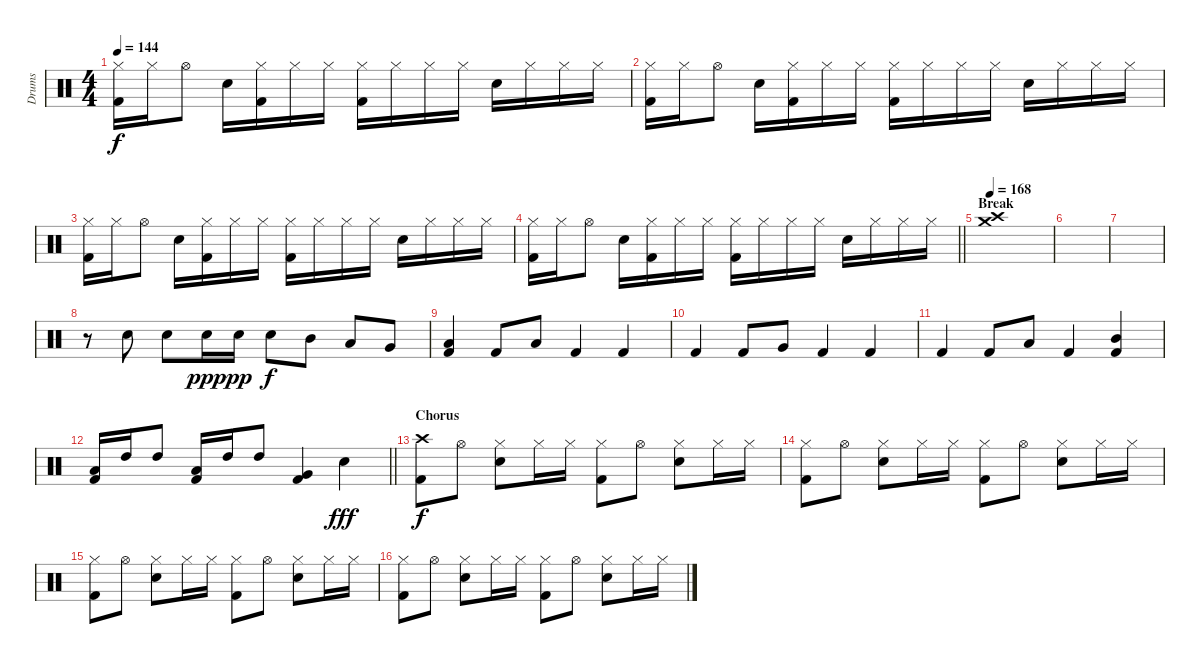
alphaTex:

\track ("Drums" "Drums") {instrument percussion}
\staff {score}
\articulation defaults
\ts (4 4)
\tempo 144
\clef neutral
\ks c
("Hi-Hat (closed)" "Kick (hit) 2").16{dy f} "Hi-Hat (closed)".16 "Hi-Hat (open)".8 "Electric Snare (hit)".16 ("Hi-Hat (closed)" "Kick (hit) 2").16 "Hi-Hat (closed)".16 "Hi-Hat (closed)".16 ("Hi-Hat (closed)" "Kick (hit) 2").16 "Hi-Hat (closed)".16 "Hi-Hat (closed)".16 "Hi-Hat (closed)".16 "Electric Snare (hit)".16 "Hi-Hat (closed)".16 "Hi-Hat (closed)".16 "Hi-Hat (closed)".16 |
("Hi-Hat (closed)" "Kick (hit) 2").16 "Hi-Hat (closed)".16 "Hi-Hat (open)".8 "Electric Snare (hit)".16 ("Hi-Hat (closed)" "Kick (hit) 2").16 "Hi-Hat (closed)".16 "Hi-Hat (closed)".16 ("Hi-Hat (closed)" "Kick (hit) 2").16 "Hi-Hat (closed)".16 "Hi-Hat (closed)".16 "Hi-Hat (closed)".16 "Electric Snare (hit)".16 "Hi-Hat (closed)".16 "Hi-Hat (closed)".16 "Hi-Hat (closed)".16 |
("Hi-Hat (closed)" "Kick (hit) 2").16 "Hi-Hat (closed)".16 "Hi-Hat (open)".8 "Electric Snare (hit)".16 ("Hi-Hat (closed)" "Kick (hit) 2").16 "Hi-Hat (closed)".16 "Hi-Hat (closed)".16 ("Hi-Hat (closed)" "Kick (hit) 2").16 "Hi-Hat (closed)".16 "Hi-Hat (closed)".16 "Hi-Hat (closed)".16 "Electric Snare (hit)".16 "Hi-Hat (closed)".16 "Hi-Hat (closed)".16 "Hi-Hat (closed)".16 |
\barLineRight lightlight
("Hi-Hat (closed)" "Kick (hit) 2").16 "Hi-Hat (closed)".16 "Hi-Hat (open)".8 "Electric Snare (hit)".16 ("Hi-Hat (closed)" "Kick (hit) 2").16 "Hi-Hat (closed)".16 "Hi-Hat (closed)".16 ("Hi-Hat (closed)" "Kick (hit) 2").16 "Hi-Hat (closed)".16 "Hi-Hat (closed)".16 "Hi-Hat (closed)".16 "Electric Snare (hit)".16 "Hi-Hat (closed)".16 "Hi-Hat (closed)".16 "Hi-Hat (closed)".16 |
\section ("" "Break")
\tempo 168
("Crash medium (hit)" "Crash high (hit)").1 |
|
|
r.8 "Electric Snare (hit)".8 "Electric Snare (hit)".8 "Electric Snare (hit)".16{dy ppp} "Electric Snare (hit)".16{dy pp} "Electric Snare (hit)".8{dy f} "Mid Tom (hit)".8 "Low Tom (hit)".8 "Very Low Tom (hit)".8 |
("Low Tom (hit)" "Kick (hit) 2").4 "Kick (hit) 2".8 "Low Tom (hit)".8 "Kick (hit) 2".4 "Kick (hit) 2".4 |
"Kick (hit) 2".4 "Kick (hit) 2".8 "Very Low Tom (hit)".8 "Kick (hit) 2".4 "Kick (hit) 2".4 |
"Kick (hit) 2".4 "Kick (hit) 2".8 "Low Tom (hit)".8 "Kick (hit) 2".4 ("Mid Tom (hit)" "Kick (hit) 2").4 |
\barLineRight lightlight
("Low Tom (hit)" "Kick (hit) 2").16 "High Tom (hit)".16 "High Tom (hit)".8 ("Low Tom (hit)" "Kick (hit) 2").16 "High Tom (hit)".16 "High Tom (hit)".8 ("Very Low Tom (hit)" "Kick (hit) 2").4 "Electric Snare (hit)".4{dy fff} |
\section ("" "Chorus")
("Crash high (hit)" "Kick (hit) 2").8{dy f} "Hi-Hat (open)".8 ("Hi-Hat (closed)" "Electric Snare (hit)").8 "Hi-Hat (closed)".16 "Hi-Hat (closed)".16 ("Hi-Hat (closed)" "Kick (hit) 2").8 "Hi-Hat (open)".8 ("Hi-Hat (closed)" "Electric Snare (hit)").8 "Hi-Hat (closed)".16 "Hi-Hat (closed)".16 |
("Hi-Hat (closed)" "Kick (hit) 2").8 "Hi-Hat (open)".8 ("Hi-Hat (closed)" "Electric Snare (hit)").8 "Hi-Hat (closed)".16 "Hi-Hat (closed)".16 ("Hi-Hat (closed)" "Kick (hit) 2").8 "Hi-Hat (open)".8 ("Hi-Hat (closed)" "Electric Snare (hit)").8 "Hi-Hat (closed)".16 "Hi-Hat (closed)".16 |
("Hi-Hat (closed)" "Kick (hit) 2").8 "Hi-Hat (open)".8 ("Hi-Hat (closed)" "Electric Snare (hit)").8 "Hi-Hat (closed)".16 "Hi-Hat (closed)".16 ("Hi-Hat (closed)" "Kick (hit) 2").8 "Hi-Hat (open)".8 ("Hi-Hat (closed)" "Electric Snare (hit)").8 "Hi-Hat (closed)".16 "Hi-Hat (closed)".16 |
("Hi-Hat (closed)" "Kick (hit) 2").8 "Hi-Hat (open)".8 ("Hi-Hat (closed)" "Electric Snare (hit)").8 "Hi-Hat (closed)".16 "Hi-Hat (closed)".16 ("Hi-Hat (closed)" "Kick (hit) 2").8 "Hi-Hat (open)".8 ("Hi-Hat (closed)" "Electric Snare (hit)").8 "Hi-Hat (closed)".16 "Hi-Hat (closed)".16
